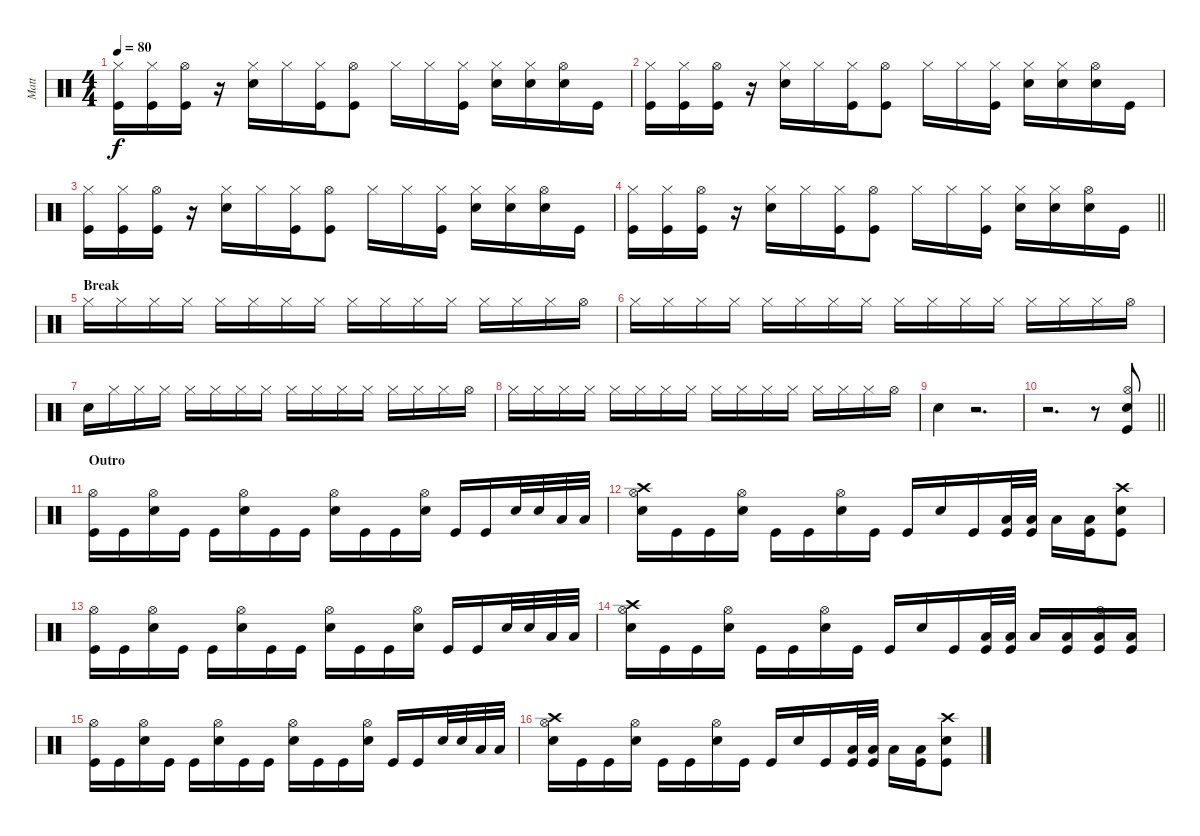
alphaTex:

\track ("Matt" "Matt") {instrument percussion}
\staff {score}
\articulation defaults
\ts (4 4)
\tempo 80
\clef neutral
\ks c
("Hi-Hat (closed)" "Kick (hit)").16{dy f} ("Hi-Hat (closed)" "Kick (hit)").16 ("Hi-Hat (open)" "Kick (hit)").16 r.16 ("Hi-Hat (closed)" "Electric Snare (hit)").16 "Hi-Hat (closed)".16 ("Hi-Hat (closed)" "Kick (hit)").16 ("Hi-Hat (open)" "Kick (hit)").8 "Hi-Hat (closed)".16 "Hi-Hat (closed)".16 ("Hi-Hat (closed)" "Kick (hit)").16 ("Hi-Hat (closed)" "Electric Snare (hit)").16 ("Hi-Hat (closed)" "Electric Snare (hit)").16 ("Hi-Hat (open)" "Electric Snare (hit)").16 "Kick (hit)".16 |
("Hi-Hat (closed)" "Kick (hit)").16 ("Hi-Hat (closed)" "Kick (hit)").16 ("Hi-Hat (open)" "Kick (hit)").16 r.16 ("Hi-Hat (closed)" "Electric Snare (hit)").16 "Hi-Hat (closed)".16 ("Hi-Hat (closed)" "Kick (hit)").16 ("Hi-Hat (open)" "Kick (hit)").8 "Hi-Hat (closed)".16 "Hi-Hat (closed)".16 ("Hi-Hat (closed)" "Kick (hit)").16 ("Hi-Hat (closed)" "Electric Snare (hit)").16 ("Hi-Hat (closed)" "Electric Snare (hit)").16 ("Hi-Hat (open)" "Electric Snare (hit)").16 "Kick (hit)".16 |
("Hi-Hat (closed)" "Kick (hit)").16 ("Hi-Hat (closed)" "Kick (hit)").16 ("Hi-Hat (open)" "Kick (hit)").16 r.16 ("Hi-Hat (closed)" "Electric Snare (hit)").16 "Hi-Hat (closed)".16 ("Hi-Hat (closed)" "Kick (hit)").16 ("Hi-Hat (open)" "Kick (hit)").8 "Hi-Hat (closed)".16 "Hi-Hat (closed)".16 ("Hi-Hat (closed)" "Kick (hit)").16 ("Hi-Hat (closed)" "Electric Snare (hit)").16 ("Hi-Hat (closed)" "Electric Snare (hit)").16 ("Hi-Hat (open)" "Electric Snare (hit)").16 "Kick (hit)".16 |
\barLineRight lightlight
("Hi-Hat (closed)" "Kick (hit)").16 ("Hi-Hat (closed)" "Kick (hit)").16 ("Hi-Hat (open)" "Kick (hit)").16 r.16 ("Hi-Hat (closed)" "Electric Snare (hit)").16 "Hi-Hat (closed)".16 ("Hi-Hat (closed)" "Kick (hit)").16 ("Hi-Hat (open)" "Kick (hit)").8 "Hi-Hat (closed)".16 "Hi-Hat (closed)".16 ("Hi-Hat (closed)" "Kick (hit)").16 ("Hi-Hat (closed)" "Electric Snare (hit)").16 ("Hi-Hat (closed)" "Electric Snare (hit)").16 ("Hi-Hat (open)" "Electric Snare (hit)").16 "Kick (hit)".16 |
\section ("" "Break")
"Hi-Hat (closed)".16 "Hi-Hat (closed)".16 "Hi-Hat (closed)".16 "Hi-Hat (closed)".16 "Hi-Hat (closed)".16 "Hi-Hat (closed)".16 "Hi-Hat (closed)".16 "Hi-Hat (closed)".16 "Hi-Hat (closed)".16 "Hi-Hat (closed)".16 "Hi-Hat (closed)".16 "Hi-Hat (closed)".16 "Hi-Hat (closed)".16 "Hi-Hat (closed)".16 "Hi-Hat (closed)".16 "Hi-Hat (open)".16 |
"Hi-Hat (closed)".16 "Hi-Hat (closed)".16 "Hi-Hat (closed)".16 "Hi-Hat (closed)".16 "Hi-Hat (closed)".16 "Hi-Hat (closed)".16 "Hi-Hat (closed)".16 "Hi-Hat (closed)".16 "Hi-Hat (closed)".16 "Hi-Hat (closed)".16 "Hi-Hat (closed)".16 "Hi-Hat (closed)".16 "Hi-Hat (closed)".16 "Hi-Hat (closed)".16 "Hi-Hat (closed)".16 "Hi-Hat (open)".16 |
"Electric Snare (hit)".16 "Hi-Hat (closed)".16 "Hi-Hat (closed)".16 "Hi-Hat (closed)".16 "Hi-Hat (closed)".16 "Hi-Hat (closed)".16 "Hi-Hat (closed)".16 "Hi-Hat (closed)".16 "Hi-Hat (closed)".16 "Hi-Hat (closed)".16 "Hi-Hat (closed)".16 "Hi-Hat (closed)".16 "Hi-Hat (closed)".16 "Hi-Hat (closed)".16 "Hi-Hat (closed)".16 "Hi-Hat (open)".16 |
"Hi-Hat (closed)".16 "Hi-Hat (closed)".16 "Hi-Hat (closed)".16 "Hi-Hat (closed)".16 "Hi-Hat (closed)".16 "Hi-Hat (closed)".16 "Hi-Hat (closed)".16 "Hi-Hat (closed)".16 "Hi-Hat (closed)".16 "Hi-Hat (closed)".16 "Hi-Hat (closed)".16 "Hi-Hat (closed)".16 "Hi-Hat (closed)".16 "Hi-Hat (closed)".16 "Hi-Hat (closed)".16 "Hi-Hat (open)".16 |
"Electric Snare (hit)".4 r.2{d} |
\barLineRight lightlight
r.2{d} r.8 ("Hi-Hat (open)" "Electric Snare (hit)" "Kick (hit)").8 |
\section ("" "Outro")
("Hi-Hat (open)" "Kick (hit)").16 "Kick (hit)".16 ("Hi-Hat (open)" "Electric Snare (hit)").16 "Kick (hit)".16 "Kick (hit)".16 ("Hi-Hat (open)" "Electric Snare (hit)").16 "Kick (hit)".16 "Kick (hit)".16 ("Hi-Hat (open)" "Electric Snare (hit)").16 "Kick (hit)".16 "Kick (hit)".16 ("Hi-Hat (open)" "Electric Snare (hit)").16 "Kick (hit)".16 "Kick (hit)".16 "Electric Snare (hit)".32 "Electric Snare (hit)".32 "Low Floor Tom (hit)".32 "Low Floor Tom (hit)".32 |
("Crash high (hit)" "Hi-Hat (open)" "Electric Snare (hit)").16 "Kick (hit)".16 "Kick (hit)".16 ("Hi-Hat (open)" "Electric Snare (hit)").16 "Kick (hit)".16 "Kick (hit)".16 ("Hi-Hat (open)" "Electric Snare (hit)").16 "Kick (hit)".16 "Kick (hit)".16 "Electric Snare (hit)".16 "Kick (hit)".16 ("Low Tom (hit)" "Kick (hit)").32 ("Low Tom (hit)" "Kick (hit)").32 "Low Tom (hit)".16 ("Low Floor Tom (hit)" "Kick (hit)").16 ("Crash high (hit)" "Electric Snare (hit)" "Kick (hit)").8 |
("Hi-Hat (open)" "Kick (hit)").16 "Kick (hit)".16 ("Hi-Hat (open)" "Electric Snare (hit)").16 "Kick (hit)".16 "Kick (hit)".16 ("Hi-Hat (open)" "Electric Snare (hit)").16 "Kick (hit)".16 "Kick (hit)".16 ("Hi-Hat (open)" "Electric Snare (hit)").16 "Kick (hit)".16 "Kick (hit)".16 ("Hi-Hat (open)" "Electric Snare (hit)").16 "Kick (hit)".16 "Kick (hit)".16 "Electric Snare (hit)".32 "Electric Snare (hit)".32 "Low Floor Tom (hit)".32 "Low Floor Tom (hit)".32 |
("Crash high (hit)" "Hi-Hat (open)" "Electric Snare (hit)").16 "Kick (hit)".16 "Kick (hit)".16 ("Hi-Hat (open)" "Electric Snare (hit)").16 "Kick (hit)".16 "Kick (hit)".16 ("Hi-Hat (open)" "Electric Snare (hit)").16 "Kick (hit)".16 "Kick (hit)".16 "Electric Snare (hit)".16 "Kick (hit)".16 ("Low Tom (hit)" "Kick (hit)").32 ("Low Tom (hit)" "Kick (hit)").32 "Low Tom (hit)".16 ("Low Floor Tom (hit)" "Kick (hit)").16 ("Hi-Hat (open)" "Low Floor Tom (hit)" "Kick (hit)").16 ("Low Floor Tom (hit)" "Kick (hit)").16 |
("Hi-Hat (open)" "Kick (hit)").16 "Kick (hit)".16 ("Hi-Hat (open)" "Electric Snare (hit)").16 "Kick (hit)".16 "Kick (hit)".16 ("Hi-Hat (open)" "Electric Snare (hit)").16 "Kick (hit)".16 "Kick (hit)".16 ("Hi-Hat (open)" "Electric Snare (hit)").16 "Kick (hit)".16 "Kick (hit)".16 ("Hi-Hat (open)" "Electric Snare (hit)").16 "Kick (hit)".16 "Kick (hit)".16 "Electric Snare (hit)".32 "Electric Snare (hit)".32 "Low Floor Tom (hit)".32 "Low Floor Tom (hit)".32 |
("Crash high (hit)" "Hi-Hat (open)" "Electric Snare (hit)").16 "Kick (hit)".16 "Kick (hit)".16 ("Hi-Hat (open)" "Electric Snare (hit)").16 "Kick (hit)".16 "Kick (hit)".16 ("Hi-Hat (open)" "Electric Snare (hit)").16 "Kick (hit)".16 "Kick (hit)".16 "Electric Snare (hit)".16 "Kick (hit)".16 ("Low Tom (hit)" "Kick (hit)").32 ("Low Tom (hit)" "Kick (hit)").32 "Low Tom (hit)".16 ("Low Floor Tom (hit)" "Kick (hit)").16 ("Crash high (hit)" "Electric Snare (hit)" "Kick (hit)").8
